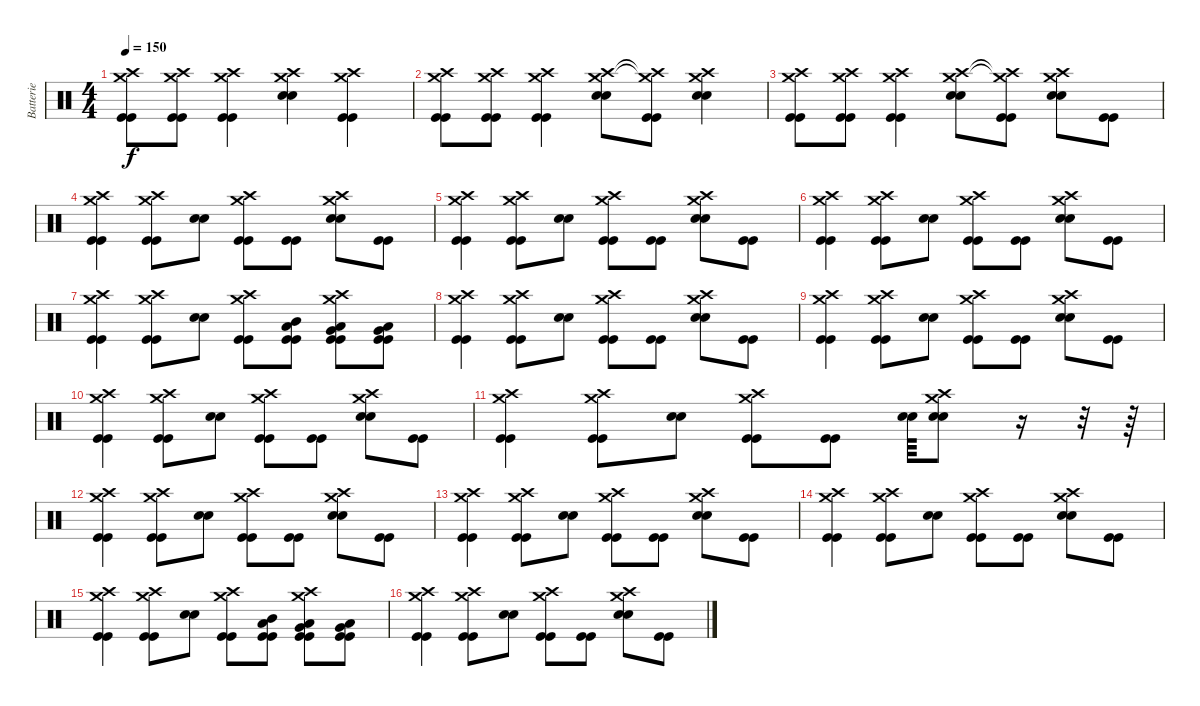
\track ("Batterie" "Batterie") {instrument percussion}
\staff {score}
\articulation defaults
\ts (4 4)
\tempo 150
\clef neutral
\ks c
("Crash high (hit)" "Crash medium (hit)" "Kick (hit)" "Kick (hit)").8{dy f} ("Crash high (hit)" "Crash medium (hit)" "Kick (hit)" "Kick (hit)").8 ("Crash high (hit)" "Crash medium (hit)" "Kick (hit)" "Kick (hit)").4 ("Crash high (hit)" "Crash medium (hit)" "Electric Snare (hit)" "Electric Snare (hit)").4 ("Crash high (hit)" "Crash medium (hit)" "Kick (hit)" "Kick (hit)").4 |
("Crash high (hit)" "Crash medium (hit)" "Kick (hit)" "Kick (hit)").8 ("Crash high (hit)" "Crash medium (hit)" "Kick (hit)" "Kick (hit)").8 ("Crash high (hit)" "Crash medium (hit)" "Kick (hit)" "Kick (hit)").4 ("Crash high (hit)" "Crash medium (hit)" "Electric Snare (hit)" "Electric Snare (hit)").8 ("Crash high (hit)"{t} "Crash medium (hit)"{t} "Kick (hit)" "Kick (hit)").8 ("Crash high (hit)" "Crash medium (hit)" "Electric Snare (hit)" "Electric Snare (hit)").4 |
("Crash high (hit)" "Crash medium (hit)" "Kick (hit)" "Kick (hit)").8 ("Crash high (hit)" "Crash medium (hit)" "Kick (hit)" "Kick (hit)").8 ("Crash high (hit)" "Crash medium (hit)" "Kick (hit)" "Kick (hit)").4 ("Crash high (hit)" "Crash medium (hit)" "Electric Snare (hit)" "Electric Snare (hit)").8 ("Crash high (hit)"{t} "Crash medium (hit)"{t} "Kick (hit)" "Kick (hit)").8 ("Crash high (hit)" "Crash medium (hit)" "Electric Snare (hit)" "Electric Snare (hit)").8 ("Kick (hit)" "Kick (hit)").8 |
("Crash high (hit)" "Crash medium (hit)" "Kick (hit)" "Kick (hit)").4 ("Crash high (hit)" "Crash medium (hit)" "Kick (hit)" "Kick (hit)").8 ("Electric Snare (hit)" "Electric Snare (hit)").8 ("Crash high (hit)" "Crash medium (hit)" "Kick (hit)" "Kick (hit)").8 ("Kick (hit)" "Kick (hit)").8 ("Crash high (hit)" "Crash medium (hit)" "Electric Snare (hit)" "Electric Snare (hit)").8 ("Kick (hit)" "Kick (hit)").8 |
("Crash high (hit)" "Crash medium (hit)" "Kick (hit)" "Kick (hit)").4 ("Crash high (hit)" "Crash medium (hit)" "Kick (hit)" "Kick (hit)").8 ("Electric Snare (hit)" "Electric Snare (hit)").8 ("Crash high (hit)" "Crash medium (hit)" "Kick (hit)" "Kick (hit)").8 ("Kick (hit)" "Kick (hit)").8 ("Crash high (hit)" "Crash medium (hit)" "Electric Snare (hit)" "Electric Snare (hit)").8 ("Kick (hit)" "Kick (hit)").8 |
("Crash high (hit)" "Crash medium (hit)" "Kick (hit)" "Kick (hit)").4 ("Crash high (hit)" "Crash medium (hit)" "Kick (hit)" "Kick (hit)").8 ("Electric Snare (hit)" "Electric Snare (hit)").8 ("Crash high (hit)" "Crash medium (hit)" "Kick (hit)" "Kick (hit)").8 ("Kick (hit)" "Kick (hit)").8 ("Crash high (hit)" "Crash medium (hit)" "Electric Snare (hit)" "Electric Snare (hit)").8 ("Kick (hit)" "Kick (hit)").8 |
("Crash high (hit)" "Crash medium (hit)" "Kick (hit)" "Kick (hit)").4 ("Crash high (hit)" "Crash medium (hit)" "Kick (hit)" "Kick (hit)").8 ("Electric Snare (hit)" "Electric Snare (hit)").8 ("Crash high (hit)" "Crash medium (hit)" "Kick (hit)" "Kick (hit)").8 ("Mid Tom (hit)" "Low Floor Tom (hit)" "Kick (hit)" "Kick (hit)").8 ("Crash high (hit)" "Crash medium (hit)" "Very Low Tom (hit)" "Low Floor Tom (hit)" "Kick (hit)" "Kick (hit)").8 ("Very Low Tom (hit)" "Low Floor Tom (hit)" "Kick (hit)" "Kick (hit)").8 |
("Crash high (hit)" "Crash medium (hit)" "Kick (hit)" "Kick (hit)").4 ("Crash high (hit)" "Crash medium (hit)" "Kick (hit)" "Kick (hit)").8 ("Electric Snare (hit)" "Electric Snare (hit)").8 ("Crash high (hit)" "Crash medium (hit)" "Kick (hit)" "Kick (hit)").8 ("Kick (hit)" "Kick (hit)").8 ("Crash high (hit)" "Crash medium (hit)" "Electric Snare (hit)" "Electric Snare (hit)").8 ("Kick (hit)" "Kick (hit)").8 |
("Crash high (hit)" "Crash medium (hit)" "Kick (hit)" "Kick (hit)").4 ("Crash high (hit)" "Crash medium (hit)" "Kick (hit)" "Kick (hit)").8 ("Electric Snare (hit)" "Electric Snare (hit)").8 ("Crash high (hit)" "Crash medium (hit)" "Kick (hit)" "Kick (hit)").8 ("Kick (hit)" "Kick (hit)").8 ("Crash high (hit)" "Crash medium (hit)" "Electric Snare (hit)" "Electric Snare (hit)").8 ("Kick (hit)" "Kick (hit)").8 |
("Crash high (hit)" "Crash medium (hit)" "Kick (hit)" "Kick (hit)").4 ("Crash high (hit)" "Crash medium (hit)" "Kick (hit)" "Kick (hit)").8 ("Electric Snare (hit)" "Electric Snare (hit)").8 ("Crash high (hit)" "Crash medium (hit)" "Kick (hit)" "Kick (hit)").8 ("Kick (hit)" "Kick (hit)").8 ("Crash high (hit)" "Crash medium (hit)" "Electric Snare (hit)" "Electric Snare (hit)").8 ("Kick (hit)" "Kick (hit)").8 |
("Crash high (hit)" "Crash medium (hit)" "Kick (hit)" "Kick (hit)").4 ("Crash high (hit)" "Crash medium (hit)" "Kick (hit)" "Kick (hit)").8 ("Electric Snare (hit)" "Electric Snare (hit)").8 ("Crash high (hit)" "Crash medium (hit)" "Kick (hit)" "Kick (hit)").8 ("Kick (hit)" "Kick (hit)").8 ("Electric Snare (hit)" "Electric Snare (hit)").64 ("Crash high (hit)" "Crash medium (hit)" "Electric Snare (hit)" "Electric Snare (hit)").8 r.16 r.32 r.64 |
("Crash high (hit)" "Crash medium (hit)" "Kick (hit)" "Kick (hit)").4 ("Crash high (hit)" "Crash medium (hit)" "Kick (hit)" "Kick (hit)").8 ("Electric Snare (hit)" "Electric Snare (hit)").8 ("Crash high (hit)" "Crash medium (hit)" "Kick (hit)" "Kick (hit)").8 ("Kick (hit)" "Kick (hit)").8 ("Crash high (hit)" "Crash medium (hit)" "Electric Snare (hit)" "Electric Snare (hit)").8 ("Kick (hit)" "Kick (hit)").8 |
("Crash high (hit)" "Crash medium (hit)" "Kick (hit)" "Kick (hit)").4 ("Crash high (hit)" "Crash medium (hit)" "Kick (hit)" "Kick (hit)").8 ("Electric Snare (hit)" "Electric Snare (hit)").8 ("Crash high (hit)" "Crash medium (hit)" "Kick (hit)" "Kick (hit)").8 ("Kick (hit)" "Kick (hit)").8 ("Crash high (hit)" "Crash medium (hit)" "Electric Snare (hit)" "Electric Snare (hit)").8 ("Kick (hit)" "Kick (hit)").8 |
("Crash high (hit)" "Crash medium (hit)" "Kick (hit)" "Kick (hit)").4 ("Crash high (hit)" "Crash medium (hit)" "Kick (hit)" "Kick (hit)").8 ("Electric Snare (hit)" "Electric Snare (hit)").8 ("Crash high (hit)" "Crash medium (hit)" "Kick (hit)" "Kick (hit)").8 ("Kick (hit)" "Kick (hit)").8 ("Crash high (hit)" "Crash medium (hit)" "Electric Snare (hit)" "Electric Snare (hit)").8 ("Kick (hit)" "Kick (hit)").8 |
("Crash high (hit)" "Crash medium (hit)" "Kick (hit)" "Kick (hit)").4 ("Crash high (hit)" "Crash medium (hit)" "Kick (hit)" "Kick (hit)").8 ("Electric Snare (hit)" "Electric Snare (hit)").8 ("Crash high (hit)" "Crash medium (hit)" "Kick (hit)" "Kick (hit)").8 ("Mid Tom (hit)" "Low Floor Tom (hit)" "Kick (hit)" "Kick (hit)").8 ("Crash high (hit)" "Crash medium (hit)" "Very Low Tom (hit)" "Low Floor Tom (hit)" "Kick (hit)" "Kick (hit)").8 ("Very Low Tom (hit)" "Low Floor Tom (hit)" "Kick (hit)" "Kick (hit)").8 |
("Crash high (hit)" "Crash medium (hit)" "Kick (hit)" "Kick (hit)").4 ("Crash high (hit)" "Crash medium (hit)" "Kick (hit)" "Kick (hit)").8 ("Electric Snare (hit)" "Electric Snare (hit)").8 ("Crash high (hit)" "Crash medium (hit)" "Kick (hit)" "Kick (hit)").8 ("Kick (hit)" "Kick (hit)").8 ("Crash high (hit)" "Crash medium (hit)" "Electric Snare (hit)" "Electric Snare (hit)").8 ("Kick (hit)" "Kick (hit)").8
